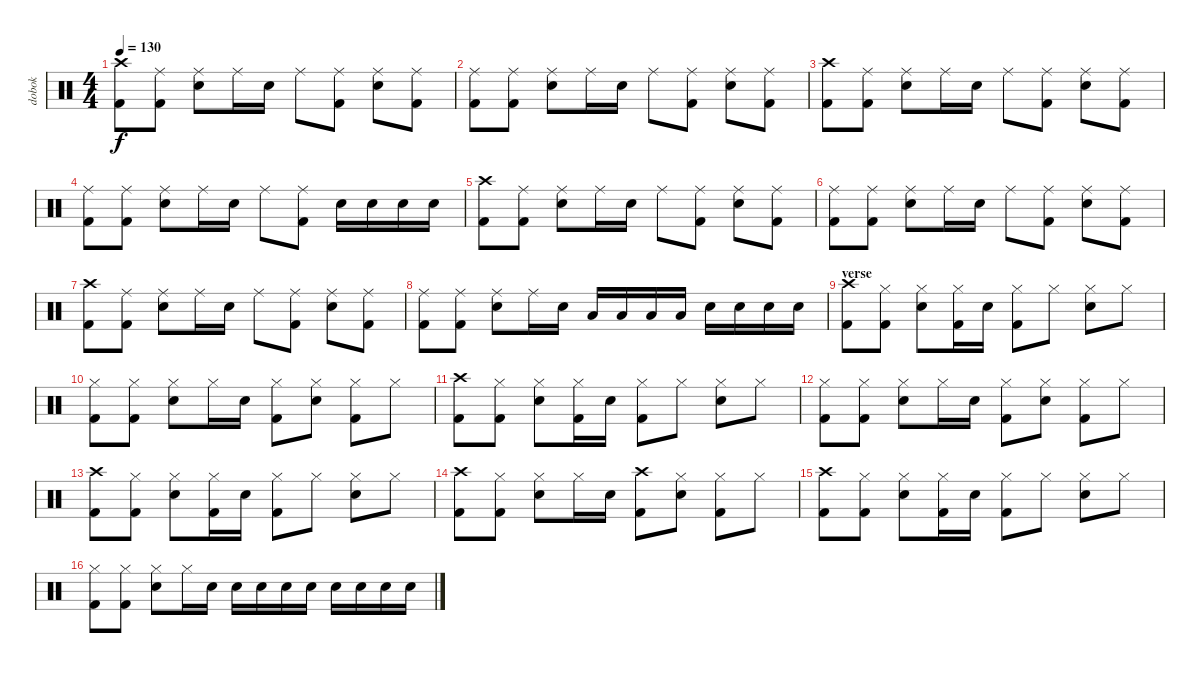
\track ("dobok" "dobok") {instrument percussion}
\staff {score}
\articulation defaults
\ts (4 4)
\tempo 130
\clef neutral
\ks c
("Crash high (hit)" "Kick (hit) 2").8{dy f} ("Ride (middle)" "Kick (hit) 2").8 ("Ride (middle)" "Snare (hit) 2").8 "Ride (middle)".16 "Snare (hit) 2".16 "Ride (middle)".8 ("Ride (middle)" "Kick (hit) 2").8 ("Ride (middle)" "Snare (hit) 2").8 ("Ride (middle)" "Kick (hit) 2").8 |
("Ride (middle)" "Kick (hit) 2").8 ("Ride (middle)" "Kick (hit) 2").8 ("Ride (middle)" "Snare (hit) 2").8 "Ride (middle)".16 "Snare (hit) 2".16 "Ride (middle)".8 ("Ride (middle)" "Kick (hit) 2").8 ("Ride (middle)" "Snare (hit) 2").8 ("Ride (middle)" "Kick (hit) 2").8 |
("Crash high (hit)" "Kick (hit) 2").8 ("Ride (middle)" "Kick (hit) 2").8 ("Ride (middle)" "Snare (hit) 2").8 "Ride (middle)".16 "Snare (hit) 2".16 "Ride (middle)".8 ("Ride (middle)" "Kick (hit) 2").8 ("Ride (middle)" "Snare (hit) 2").8 ("Ride (middle)" "Kick (hit) 2").8 |
("Ride (middle)" "Kick (hit) 2").8 ("Ride (middle)" "Kick (hit) 2").8 ("Ride (middle)" "Snare (hit) 2").8 "Ride (middle)".16 "Snare (hit) 2".16 "Ride (middle)".8 ("Ride (middle)" "Kick (hit) 2").8 "Snare (hit) 2".16 "Snare (hit) 2".16 "Snare (hit) 2".16 "Snare (hit) 2".16 |
("Crash high (hit)" "Kick (hit) 2").8 ("Ride (middle)" "Kick (hit) 2").8 ("Ride (middle)" "Snare (hit) 2").8 "Ride (middle)".16 "Snare (hit) 2".16 "Ride (middle)".8 ("Ride (middle)" "Kick (hit) 2").8 ("Ride (middle)" "Snare (hit) 2").8 ("Ride (middle)" "Kick (hit) 2").8 |
("Ride (middle)" "Kick (hit) 2").8 ("Ride (middle)" "Kick (hit) 2").8 ("Ride (middle)" "Snare (hit) 2").8 "Ride (middle)".16 "Snare (hit) 2".16 "Ride (middle)".8 ("Ride (middle)" "Kick (hit) 2").8 ("Ride (middle)" "Snare (hit) 2").8 ("Ride (middle)" "Kick (hit) 2").8 |
("Crash high (hit)" "Kick (hit) 2").8 ("Ride (middle)" "Kick (hit) 2").8 ("Ride (middle)" "Snare (hit) 2").8 "Ride (middle)".16 "Snare (hit) 2".16 "Ride (middle)".8 ("Ride (middle)" "Kick (hit) 2").8 ("Ride (middle)" "Snare (hit) 2").8 ("Ride (middle)" "Kick (hit) 2").8 |
("Ride (middle)" "Kick (hit) 2").8 ("Ride (middle)" "Kick (hit) 2").8 ("Ride (middle)" "Snare (hit) 2").8 "Ride (middle)".16 "Snare (hit) 2".16 "Low Floor Tom (hit)".16 "Low Floor Tom (hit)".16 "Low Tom (hit)".16 "Low Tom (hit)".16 "Snare (hit) 2".16 "Snare (hit) 2".16 "Snare (hit) 2".16 "Snare (hit) 2".16 |
\section ("" "verse")
("Crash high (hit)" "Kick (hit) 2").8 ("Hi-Hat (closed)" "Kick (hit) 2").8 ("Hi-Hat (closed)" "Snare (hit) 2").8 ("Hi-Hat (closed)" "Kick (hit) 2").16 "Snare (hit) 2".16 ("Hi-Hat (closed)" "Kick (hit) 2").8 "Hi-Hat (closed)".8 ("Hi-Hat (closed)" "Snare (hit) 2").8 "Hi-Hat (closed)".8 |
("Hi-Hat (closed)" "Kick (hit) 2").8 ("Hi-Hat (closed)" "Kick (hit) 2").8 ("Hi-Hat (closed)" "Snare (hit) 2").8 "Hi-Hat (closed)".16 "Snare (hit) 2".16 ("Hi-Hat (closed)" "Kick (hit) 2").8 ("Hi-Hat (closed)" "Snare (hit) 2").8 ("Hi-Hat (closed)" "Kick (hit) 2").8 "Hi-Hat (closed)".8 |
("Crash high (hit)" "Kick (hit) 2").8 ("Hi-Hat (closed)" "Kick (hit) 2").8 ("Hi-Hat (closed)" "Snare (hit) 2").8 ("Hi-Hat (closed)" "Kick (hit) 2").16 "Snare (hit) 2".16 ("Hi-Hat (closed)" "Kick (hit) 2").8 "Hi-Hat (closed)".8 ("Hi-Hat (closed)" "Snare (hit) 2").8 "Hi-Hat (closed)".8 |
("Hi-Hat (closed)" "Kick (hit) 2").8 ("Hi-Hat (closed)" "Kick (hit) 2").8 ("Hi-Hat (closed)" "Snare (hit) 2").8 "Hi-Hat (closed)".16 "Snare (hit) 2".16 ("Hi-Hat (closed)" "Kick (hit) 2").8 ("Hi-Hat (closed)" "Snare (hit) 2").8 ("Hi-Hat (closed)" "Kick (hit) 2").8 "Hi-Hat (closed)".8 |
("Crash high (hit)" "Kick (hit) 2").8 ("Hi-Hat (closed)" "Kick (hit) 2").8 ("Hi-Hat (closed)" "Snare (hit) 2").8 ("Hi-Hat (closed)" "Kick (hit) 2").16 "Snare (hit) 2".16 ("Hi-Hat (closed)" "Kick (hit) 2").8 "Hi-Hat (closed)".8 ("Hi-Hat (closed)" "Snare (hit) 2").8 "Hi-Hat (closed)".8 |
("Crash high (hit)" "Kick (hit) 2").8 ("Hi-Hat (closed)" "Kick (hit) 2").8 ("Hi-Hat (closed)" "Snare (hit) 2").8 "Hi-Hat (closed)".16 "Snare (hit) 2".16 ("Crash high (hit)" "Kick (hit) 2").8 ("Hi-Hat (closed)" "Snare (hit) 2").8 ("Hi-Hat (closed)" "Kick (hit) 2").8 "Hi-Hat (closed)".8 |
("Crash high (hit)" "Kick (hit) 2").8 ("Hi-Hat (closed)" "Kick (hit) 2").8 ("Hi-Hat (closed)" "Snare (hit) 2").8 ("Hi-Hat (closed)" "Kick (hit) 2").16 "Snare (hit) 2".16 ("Hi-Hat (closed)" "Kick (hit) 2").8 "Hi-Hat (closed)".8 ("Hi-Hat (closed)" "Snare (hit) 2").8 "Hi-Hat (closed)".8 |
("Hi-Hat (closed)" "Kick (hit) 2").8 ("Hi-Hat (closed)" "Kick (hit) 2").8 ("Hi-Hat (closed)" "Snare (hit) 2").8 "Hi-Hat (closed)".16 "Snare (hit) 2".16 "Snare (hit) 2".16 "Snare (hit) 2".16 "Snare (hit) 2".16 "Snare (hit) 2".16 "Snare (hit) 2".16 "Snare (hit) 2".16 "Snare (hit) 2".16 "Snare (hit) 2".16
